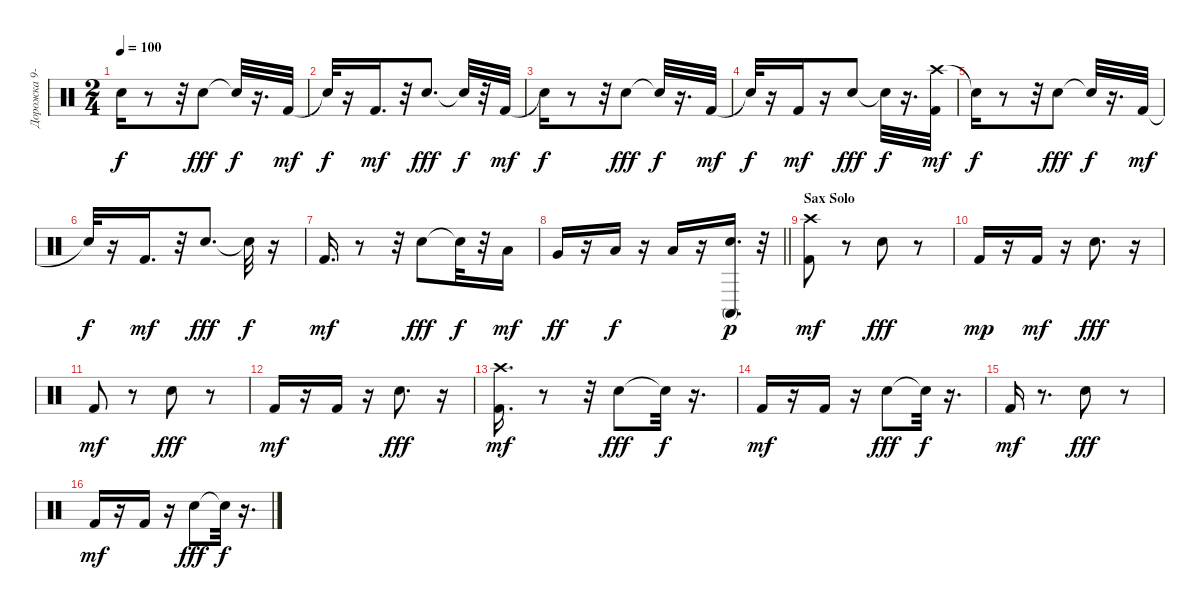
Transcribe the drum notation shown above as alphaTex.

\track ("Дорожка 9-10" "Дорожка 9-") {instrument percussion}
\staff {score}
\articulation defaults
\ts (2 4)
\tempo 100
\clef neutral
\ks c "Snare (hit)"{t}.16{dy f}
r.8 r.32 "Snare (hit) 2".8{dy fff} "Snare (hit)"{t}.32{dy f} r.16{d} "Kick (hit) 2".32{dy mf} |
"Snare (hit)"{t}.32{dy f} r.16 "Kick (hit) 2".16{d dy mf} r.32 "Snare (hit) 2".8{d dy fff} "Snare (hit)"{t}.32{dy f} r.32 "Kick (hit) 2".32{dy mf} |
"Snare (hit)"{t}.16{dy f} r.8 r.32 "Snare (hit) 2".8{dy fff} "Snare (hit)"{t}.32{dy f} r.16{d} "Kick (hit) 2".32{dy mf} |
"Snare (hit)"{t}.32{dy f} r.16 "Kick (hit) 2".16{dy mf} r.16 "Snare (hit) 2".8{dy fff} "Snare (hit)"{t}.32{dy f} r.16{d} ("Crash high (hit)" "Kick (hit) 2").32{dy mf} |
"Snare (hit)"{t}.16{dy f} r.8 r.32 "Snare (hit) 2".8{dy fff} "Snare (hit)"{t}.32{dy f} r.16{d} "Kick (hit) 2".32{dy mf} |
"Snare (hit)"{t}.32{dy f} r.16 "Kick (hit) 2".16{d dy mf} r.32 "Snare (hit) 2".8{d dy fff} "Snare (hit)"{t}.32{dy f} r.16 |
"Kick (hit) 2".16{d dy mf} r.8 r.32 "Snare (hit) 2".8{dy fff} "Snare (hit)"{t}.32{dy f} r.32 "Low Floor Tom (hit)".16{dy mf} |
\barLineRight lightlight "Very Low Tom (hit)".16{dy ff}
r.16 "Low Tom (hit)".16{dy f} r.16 "Low Floor Tom (hit)".16 r.16 ("Conga high (mute)" "Snare (hit) 2").16{d dy p} r.32 |
\section ("" "Sax Solo")
("Kick (hit) 2" "Crash high (hit)").8{dy mf} r.8 "Snare (hit) 2".8{dy fff} r.8 |
"Kick (hit) 2".16{dy mp} r.16 "Kick (hit) 2".16{dy mf} r.16 "Snare (hit) 2".8{d dy fff} r.16 |
"Kick (hit) 2".8{dy mf} r.8 "Snare (hit) 2".8{dy fff} r.8 |
"Kick (hit) 2".16{dy mf} r.16 "Kick (hit) 2".16 r.16 "Snare (hit) 2".8{d dy fff} r.16 |
("Kick (hit) 2" "Crash high (hit)").16{d dy mf} r.8 r.32 "Snare (hit) 2".8{dy fff} "Snare (hit)"{t}.32{dy f} r.16{d} |
"Kick (hit) 2".16{dy mf} r.16 "Kick (hit) 2".16 r.16 "Snare (hit) 2".8{dy fff} "Snare (hit)"{t}.32{dy f} r.16{d} |
"Kick (hit) 2".16{dy mf} r.8{d} "Snare (hit) 2".8{dy fff} r.8 |
"Kick (hit) 2".16{dy mf} r.16 "Kick (hit) 2".16 r.16 "Snare (hit) 2".8{dy fff} "Snare (hit)"{t}.32{dy f} r.16{d}
